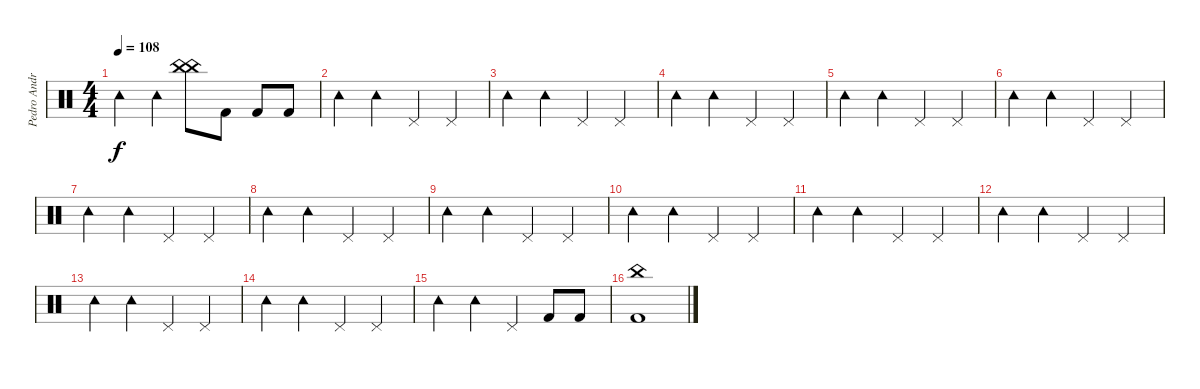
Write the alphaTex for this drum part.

\track ("Pedro Andreu" "Pedro Andr") {instrument percussion}
\staff {score}
\articulation defaults
\ts (4 4)
\tempo 108
\clef neutral
\ks c "Tambourine (hit)".4{dy f} "Tambourine (hit)".4
("China (hit)" "China (hit)").8 "Kick (hit) 2".8 "Kick (hit) 2".8 "Kick (hit) 2".8 |
"Tambourine (hit)".4 "Tambourine (hit)".4 "Pedal Hi-Hat (hit)".4 "Pedal Hi-Hat (hit)".4 |
"Tambourine (hit)".4 "Tambourine (hit)".4 "Pedal Hi-Hat (hit)".4 "Pedal Hi-Hat (hit)".4 |
"Tambourine (hit)".4 "Tambourine (hit)".4 "Pedal Hi-Hat (hit)".4 "Pedal Hi-Hat (hit)".4 |
"Tambourine (hit)".4 "Tambourine (hit)".4 "Pedal Hi-Hat (hit)".4 "Pedal Hi-Hat (hit)".4 |
"Tambourine (hit)".4 "Tambourine (hit)".4 "Pedal Hi-Hat (hit)".4 "Pedal Hi-Hat (hit)".4 |
"Tambourine (hit)".4 "Tambourine (hit)".4 "Pedal Hi-Hat (hit)".4 "Pedal Hi-Hat (hit)".4 |
"Tambourine (hit)".4 "Tambourine (hit)".4 "Pedal Hi-Hat (hit)".4 "Pedal Hi-Hat (hit)".4 |
"Tambourine (hit)".4 "Tambourine (hit)".4 "Pedal Hi-Hat (hit)".4 "Pedal Hi-Hat (hit)".4 |
"Tambourine (hit)".4 "Tambourine (hit)".4 "Pedal Hi-Hat (hit)".4 "Pedal Hi-Hat (hit)".4 |
"Tambourine (hit)".4 "Tambourine (hit)".4 "Pedal Hi-Hat (hit)".4 "Pedal Hi-Hat (hit)".4 |
"Tambourine (hit)".4 "Tambourine (hit)".4 "Pedal Hi-Hat (hit)".4 "Pedal Hi-Hat (hit)".4 |
"Tambourine (hit)".4 "Tambourine (hit)".4 "Pedal Hi-Hat (hit)".4 "Pedal Hi-Hat (hit)".4 |
"Tambourine (hit)".4 "Tambourine (hit)".4 "Pedal Hi-Hat (hit)".4 "Pedal Hi-Hat (hit)".4 |
"Tambourine (hit)".4 "Tambourine (hit)".4 "Pedal Hi-Hat (hit)".4 "Kick (hit) 2".8 "Kick (hit) 2".8 |
("Kick (hit) 2" "China (hit)").1
